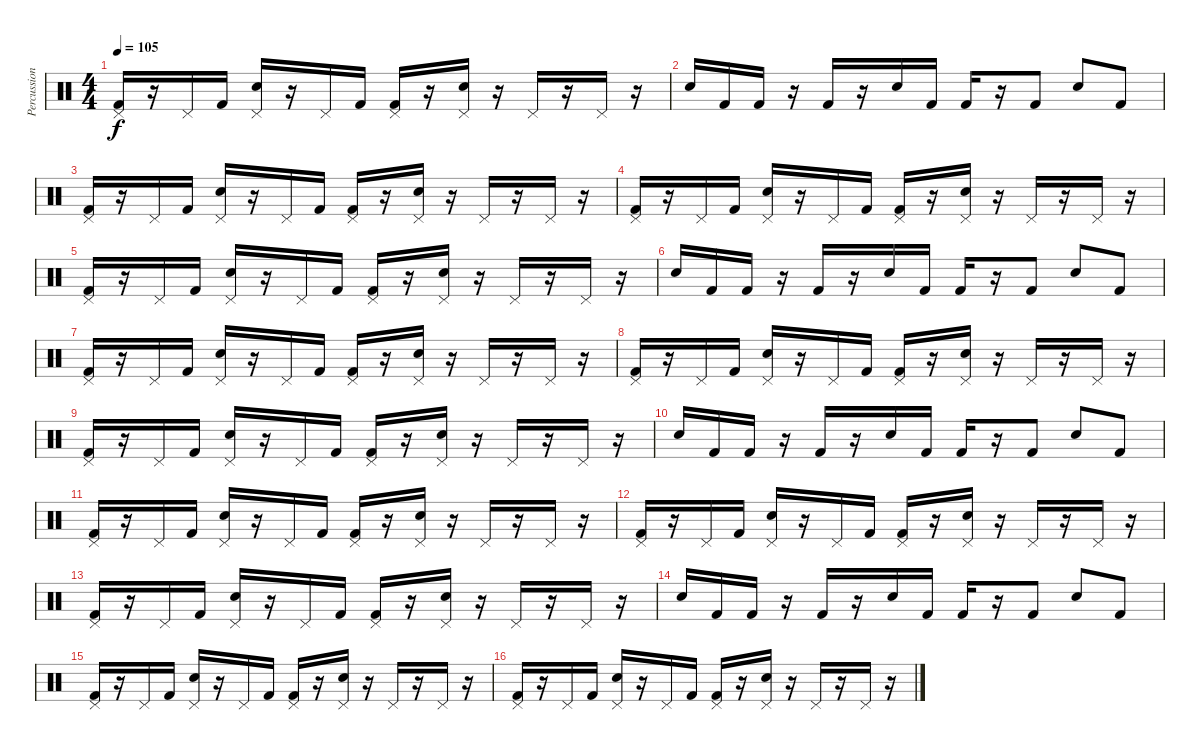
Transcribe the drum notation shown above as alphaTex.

\track ("Percussion" "Percussion") {instrument percussion}
\staff {score}
\articulation defaults
\ts (4 4)
\tempo 105
\clef neutral
\ks c
("Pedal Hi-Hat (hit)" "Kick (hit) 2").16{dy f} r.16 "Pedal Hi-Hat (hit)".16 "Kick (hit) 2".16 ("Pedal Hi-Hat (hit)" "Electric Snare (hit)").16 r.16 "Pedal Hi-Hat (hit)".16 "Kick (hit) 2".16 ("Pedal Hi-Hat (hit)" "Kick (hit) 2").16 r.16 ("Pedal Hi-Hat (hit)" "Electric Snare (hit)").16 r.16 "Pedal Hi-Hat (hit)".16 r.16 "Pedal Hi-Hat (hit)".16 r.16 |
"Electric Snare (hit)".16 "Kick (hit) 2".16 "Kick (hit) 2".16 r.16 "Kick (hit) 2".16 r.16 "Electric Snare (hit)".16 "Kick (hit) 2".16 "Kick (hit) 2".16 r.16 "Kick (hit) 2".8 "Electric Snare (hit)".8 "Kick (hit) 2".8 |
("Pedal Hi-Hat (hit)" "Kick (hit) 2").16 r.16 "Pedal Hi-Hat (hit)".16 "Kick (hit) 2".16 ("Pedal Hi-Hat (hit)" "Electric Snare (hit)").16 r.16 "Pedal Hi-Hat (hit)".16 "Kick (hit) 2".16 ("Pedal Hi-Hat (hit)" "Kick (hit) 2").16 r.16 ("Pedal Hi-Hat (hit)" "Electric Snare (hit)").16 r.16 "Pedal Hi-Hat (hit)".16 r.16 "Pedal Hi-Hat (hit)".16 r.16 |
("Pedal Hi-Hat (hit)" "Kick (hit) 2").16 r.16 "Pedal Hi-Hat (hit)".16 "Kick (hit) 2".16 ("Pedal Hi-Hat (hit)" "Electric Snare (hit)").16 r.16 "Pedal Hi-Hat (hit)".16 "Kick (hit) 2".16 ("Pedal Hi-Hat (hit)" "Kick (hit) 2").16 r.16 ("Pedal Hi-Hat (hit)" "Electric Snare (hit)").16 r.16 "Pedal Hi-Hat (hit)".16 r.16 "Pedal Hi-Hat (hit)".16 r.16 |
("Pedal Hi-Hat (hit)" "Kick (hit) 2").16 r.16 "Pedal Hi-Hat (hit)".16 "Kick (hit) 2".16 ("Pedal Hi-Hat (hit)" "Electric Snare (hit)").16 r.16 "Pedal Hi-Hat (hit)".16 "Kick (hit) 2".16 ("Pedal Hi-Hat (hit)" "Kick (hit) 2").16 r.16 ("Pedal Hi-Hat (hit)" "Electric Snare (hit)").16 r.16 "Pedal Hi-Hat (hit)".16 r.16 "Pedal Hi-Hat (hit)".16 r.16 |
"Electric Snare (hit)".16 "Kick (hit) 2".16 "Kick (hit) 2".16 r.16 "Kick (hit) 2".16 r.16 "Electric Snare (hit)".16 "Kick (hit) 2".16 "Kick (hit) 2".16 r.16 "Kick (hit) 2".8 "Electric Snare (hit)".8 "Kick (hit) 2".8 |
("Pedal Hi-Hat (hit)" "Kick (hit) 2").16 r.16 "Pedal Hi-Hat (hit)".16 "Kick (hit) 2".16 ("Pedal Hi-Hat (hit)" "Electric Snare (hit)").16 r.16 "Pedal Hi-Hat (hit)".16 "Kick (hit) 2".16 ("Pedal Hi-Hat (hit)" "Kick (hit) 2").16 r.16 ("Pedal Hi-Hat (hit)" "Electric Snare (hit)").16 r.16 "Pedal Hi-Hat (hit)".16 r.16 "Pedal Hi-Hat (hit)".16 r.16 |
("Pedal Hi-Hat (hit)" "Kick (hit) 2").16 r.16 "Pedal Hi-Hat (hit)".16 "Kick (hit) 2".16 ("Pedal Hi-Hat (hit)" "Electric Snare (hit)").16 r.16 "Pedal Hi-Hat (hit)".16 "Kick (hit) 2".16 ("Pedal Hi-Hat (hit)" "Kick (hit) 2").16 r.16 ("Pedal Hi-Hat (hit)" "Electric Snare (hit)").16 r.16 "Pedal Hi-Hat (hit)".16 r.16 "Pedal Hi-Hat (hit)".16 r.16 |
("Pedal Hi-Hat (hit)" "Kick (hit) 2").16 r.16 "Pedal Hi-Hat (hit)".16 "Kick (hit) 2".16 ("Pedal Hi-Hat (hit)" "Electric Snare (hit)").16 r.16 "Pedal Hi-Hat (hit)".16 "Kick (hit) 2".16 ("Pedal Hi-Hat (hit)" "Kick (hit) 2").16 r.16 ("Pedal Hi-Hat (hit)" "Electric Snare (hit)").16 r.16 "Pedal Hi-Hat (hit)".16 r.16 "Pedal Hi-Hat (hit)".16 r.16 |
"Electric Snare (hit)".16 "Kick (hit) 2".16 "Kick (hit) 2".16 r.16 "Kick (hit) 2".16 r.16 "Electric Snare (hit)".16 "Kick (hit) 2".16 "Kick (hit) 2".16 r.16 "Kick (hit) 2".8 "Electric Snare (hit)".8 "Kick (hit) 2".8 |
("Pedal Hi-Hat (hit)" "Kick (hit) 2").16 r.16 "Pedal Hi-Hat (hit)".16 "Kick (hit) 2".16 ("Pedal Hi-Hat (hit)" "Electric Snare (hit)").16 r.16 "Pedal Hi-Hat (hit)".16 "Kick (hit) 2".16 ("Pedal Hi-Hat (hit)" "Kick (hit) 2").16 r.16 ("Pedal Hi-Hat (hit)" "Electric Snare (hit)").16 r.16 "Pedal Hi-Hat (hit)".16 r.16 "Pedal Hi-Hat (hit)".16 r.16 |
("Pedal Hi-Hat (hit)" "Kick (hit) 2").16 r.16 "Pedal Hi-Hat (hit)".16 "Kick (hit) 2".16 ("Pedal Hi-Hat (hit)" "Electric Snare (hit)").16 r.16 "Pedal Hi-Hat (hit)".16 "Kick (hit) 2".16 ("Pedal Hi-Hat (hit)" "Kick (hit) 2").16 r.16 ("Pedal Hi-Hat (hit)" "Electric Snare (hit)").16 r.16 "Pedal Hi-Hat (hit)".16 r.16 "Pedal Hi-Hat (hit)".16 r.16 |
("Pedal Hi-Hat (hit)" "Kick (hit) 2").16 r.16 "Pedal Hi-Hat (hit)".16 "Kick (hit) 2".16 ("Pedal Hi-Hat (hit)" "Electric Snare (hit)").16 r.16 "Pedal Hi-Hat (hit)".16 "Kick (hit) 2".16 ("Pedal Hi-Hat (hit)" "Kick (hit) 2").16 r.16 ("Pedal Hi-Hat (hit)" "Electric Snare (hit)").16 r.16 "Pedal Hi-Hat (hit)".16 r.16 "Pedal Hi-Hat (hit)".16 r.16 |
"Electric Snare (hit)".16 "Kick (hit) 2".16 "Kick (hit) 2".16 r.16 "Kick (hit) 2".16 r.16 "Electric Snare (hit)".16 "Kick (hit) 2".16 "Kick (hit) 2".16 r.16 "Kick (hit) 2".8 "Electric Snare (hit)".8 "Kick (hit) 2".8 |
("Pedal Hi-Hat (hit)" "Kick (hit) 2").16 r.16 "Pedal Hi-Hat (hit)".16 "Kick (hit) 2".16 ("Pedal Hi-Hat (hit)" "Electric Snare (hit)").16 r.16 "Pedal Hi-Hat (hit)".16 "Kick (hit) 2".16 ("Pedal Hi-Hat (hit)" "Kick (hit) 2").16 r.16 ("Pedal Hi-Hat (hit)" "Electric Snare (hit)").16 r.16 "Pedal Hi-Hat (hit)".16 r.16 "Pedal Hi-Hat (hit)".16 r.16 |
("Pedal Hi-Hat (hit)" "Kick (hit) 2").16 r.16 "Pedal Hi-Hat (hit)".16 "Kick (hit) 2".16 ("Pedal Hi-Hat (hit)" "Electric Snare (hit)").16 r.16 "Pedal Hi-Hat (hit)".16 "Kick (hit) 2".16 ("Pedal Hi-Hat (hit)" "Kick (hit) 2").16 r.16 ("Pedal Hi-Hat (hit)" "Electric Snare (hit)").16 r.16 "Pedal Hi-Hat (hit)".16 r.16 "Pedal Hi-Hat (hit)".16 r.16
